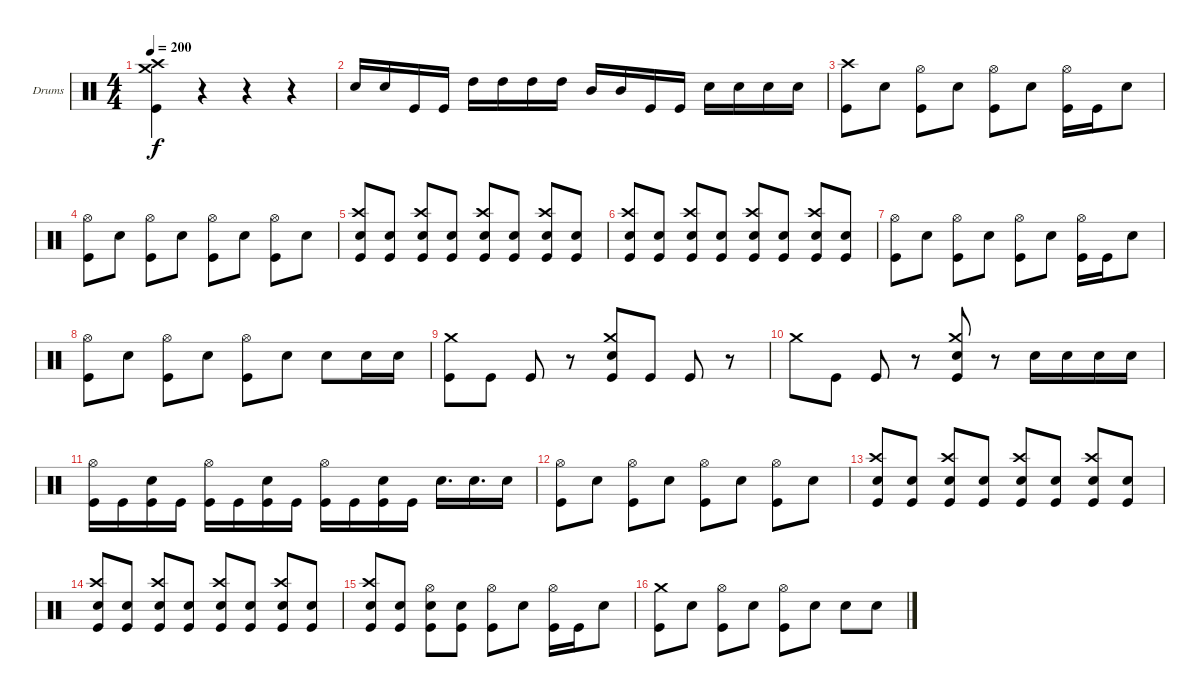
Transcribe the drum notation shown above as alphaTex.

\bracketExtendMode groupsimilarinstruments
\firstSystemTrackNameOrientation horizontal
\otherSystemsTrackNameOrientation horizontal
\track ("Drumkit" "Drums") {instrument percussion}
\staff {score}
\articulation defaults
\ts (4 4)
\tempo 200
\clef neutral
\ks c
("Kick (hit)" "Crash medium (hit)" "Crash high (hit)").4{dy f} r.4 r.4 r.4 |
"Snare (hit) 2".16 "Snare (hit) 2".16 "Kick (hit)".16 "Kick (hit)".16 "High Tom (hit)".16 "High Tom (hit)".16 "High Tom (hit)".16 "High Tom (hit)".16 "Mid Tom (hit)".16 "Mid Tom (hit)".16 "Kick (hit)".16 "Kick (hit)".16 "Snare (hit) 2".16 "Snare (hit) 2".16 "Snare (hit) 2".16 "Snare (hit) 2".16 |
("Kick (hit)" "Crash high (hit)").8 "Snare (hit) 2".8 ("Kick (hit)" "Hi-Hat (open)").8 "Snare (hit) 2".8 ("Kick (hit)" "Hi-Hat (open)").8 "Snare (hit) 2".8 ("Kick (hit)" "Hi-Hat (open)").16 "Kick (hit)".16 "Snare (hit) 2".8 |
("Kick (hit)" "Hi-Hat (open)").8 "Snare (hit) 2".8 ("Kick (hit)" "Hi-Hat (open)").8 "Snare (hit) 2".8 ("Kick (hit)" "Hi-Hat (open)").8 "Snare (hit) 2".8 ("Kick (hit)" "Hi-Hat (open)").8 "Snare (hit) 2".8 |
("Kick (hit)" "Snare (hit) 2" "Crash high (hit)").8 ("Kick (hit)" "Snare (hit) 2").8 ("Kick (hit)" "Snare (hit) 2" "Crash high (hit)").8 ("Kick (hit)" "Snare (hit) 2").8 ("Kick (hit)" "Snare (hit) 2" "Crash high (hit)").8 ("Kick (hit)" "Snare (hit) 2").8 ("Kick (hit)" "Snare (hit) 2" "Crash high (hit)").8 ("Kick (hit)" "Snare (hit) 2").8 |
("Kick (hit)" "Snare (hit) 2" "Crash high (hit)").8 ("Kick (hit)" "Snare (hit) 2").8 ("Kick (hit)" "Snare (hit) 2" "Crash high (hit)").8 ("Kick (hit)" "Snare (hit) 2").8 ("Kick (hit)" "Snare (hit) 2" "Crash high (hit)").8 ("Kick (hit)" "Snare (hit) 2").8 ("Kick (hit)" "Snare (hit) 2" "Crash high (hit)").8 ("Kick (hit)" "Snare (hit) 2").8 |
("Kick (hit)" "Hi-Hat (open)").8 "Snare (hit) 2".8 ("Kick (hit)" "Hi-Hat (open)").8 "Snare (hit) 2".8 ("Kick (hit)" "Hi-Hat (open)").8 "Snare (hit) 2".8 ("Kick (hit)" "Hi-Hat (open)").16 "Kick (hit)".16 "Snare (hit) 2".8 |
("Kick (hit)" "Hi-Hat (open)").8 "Snare (hit) 2".8 ("Kick (hit)" "Hi-Hat (open)").8 "Snare (hit) 2".8 ("Kick (hit)" "Hi-Hat (open)").8 "Snare (hit) 2".8 "Snare (hit) 2".8 "Snare (hit) 2".16 "Snare (hit) 2".16 |
("Kick (hit)" "Crash medium (hit)").8 "Kick (hit)".8 "Kick (hit)".8 r.8 ("Kick (hit)" "Crash medium (hit)" "Snare (hit) 2").8 "Kick (hit)".8 "Kick (hit)".8 r.8 |
"Crash medium (hit)".8 "Kick (hit)".8 "Kick (hit)".8 r.8 ("Kick (hit)" "Snare (hit) 2" "Crash medium (hit)").8 r.8 "Snare (hit) 2".16 "Snare (hit) 2".16 "Snare (hit) 2".16 "Snare (hit) 2".16 |
("Kick (hit)" "Hi-Hat (open)").16 "Kick (hit)".16 ("Kick (hit)" "Snare (hit) 2").16 "Kick (hit)".16 ("Kick (hit)" "Hi-Hat (open)").16 "Kick (hit)".16 ("Kick (hit)" "Snare (hit) 2").16 "Kick (hit)".16 ("Kick (hit)" "Hi-Hat (open)").16 "Kick (hit)".16 ("Kick (hit)" "Snare (hit) 2").16 "Kick (hit)".16 "Snare (hit) 2".16{d} "Snare (hit) 2".16{d} "Snare (hit) 2".16 |
("Kick (hit)" "Hi-Hat (open)").8 "Snare (hit) 2".8 ("Kick (hit)" "Hi-Hat (open)").8 "Snare (hit) 2".8 ("Kick (hit)" "Hi-Hat (open)").8 "Snare (hit) 2".8 ("Kick (hit)" "Hi-Hat (open)").8 "Snare (hit) 2".8 |
("Kick (hit)" "Snare (hit) 2" "Crash high (hit)").8 ("Kick (hit)" "Snare (hit) 2").8 ("Kick (hit)" "Snare (hit) 2" "Crash high (hit)").8 ("Kick (hit)" "Snare (hit) 2").8 ("Kick (hit)" "Snare (hit) 2" "Crash high (hit)").8 ("Kick (hit)" "Snare (hit) 2").8 ("Kick (hit)" "Snare (hit) 2" "Crash high (hit)").8 ("Kick (hit)" "Snare (hit) 2").8 |
("Kick (hit)" "Snare (hit) 2" "Crash high (hit)").8 ("Kick (hit)" "Snare (hit) 2").8 ("Kick (hit)" "Snare (hit) 2" "Crash high (hit)").8 ("Kick (hit)" "Snare (hit) 2").8 ("Kick (hit)" "Snare (hit) 2" "Crash high (hit)").8 ("Kick (hit)" "Snare (hit) 2").8 ("Kick (hit)" "Snare (hit) 2" "Crash high (hit)").8 ("Kick (hit)" "Snare (hit) 2").8 |
("Kick (hit)" "Snare (hit) 2" "Crash high (hit)").8 ("Snare (hit) 2" "Kick (hit)").8 ("Kick (hit)" "Hi-Hat (open)" "Snare (hit) 2").8 ("Snare (hit) 2" "Kick (hit)").8 ("Kick (hit)" "Hi-Hat (open)").8 "Snare (hit) 2".8 ("Kick (hit)" "Hi-Hat (open)").16 "Kick (hit)".16 "Snare (hit) 2".8 |
("Kick (hit)" "Crash medium (hit)").8 "Snare (hit) 2".8 ("Kick (hit)" "Hi-Hat (open)").8 "Snare (hit) 2".8 ("Kick (hit)" "Hi-Hat (open)").8 "Snare (hit) 2".8 "Snare (hit) 2".8 "Snare (hit) 2".8
